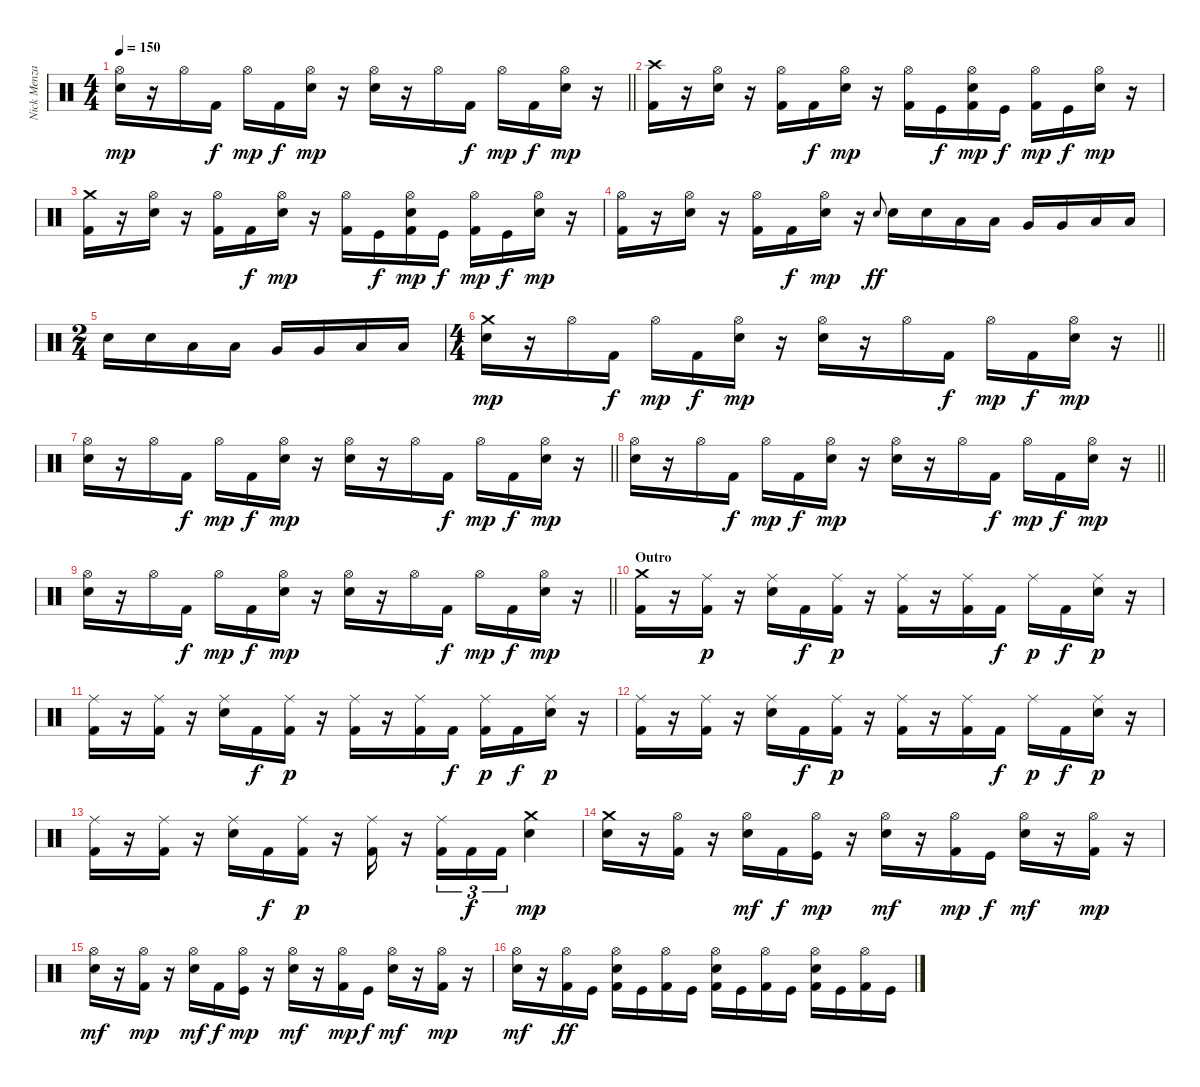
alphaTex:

\track ("Nick Menza" "Nick Menza") {solo instrument percussion}
\staff {score}
\articulation defaults
\ts (4 4)
\tempo 150
\clef neutral
\barLineRight lightlight
\ks c
("Hi-Hat (open)" "Electric Snare (hit)").16{dy mp} r.16 "Hi-Hat (open)".16 "Kick (hit) 2".16{dy f} "Hi-Hat (open)".16{dy mp} "Kick (hit) 2".16{dy f} ("Hi-Hat (open)" "Electric Snare (hit)").16{dy mp} r.16 ("Hi-Hat (open)" "Electric Snare (hit)").16 r.16 "Hi-Hat (open)".16 "Kick (hit) 2".16{dy f} "Hi-Hat (open)".16{dy mp} "Kick (hit) 2".16{dy f} ("Hi-Hat (open)" "Electric Snare (hit)").16{dy mp} r.16 |
\section ("" "")
("Crash high (hit)" "Kick (hit) 2").16 r.16 ("Hi-Hat (open)" "Electric Snare (hit)").16 r.16 ("Hi-Hat (open)" "Kick (hit) 2").16 "Kick (hit) 2".16{dy f} ("Hi-Hat (open)" "Electric Snare (hit)").16{dy mp} r.16 ("Hi-Hat (open)" "Kick (hit) 2").16 "Kick (hit)".16{dy f} ("Hi-Hat (open)" "Electric Snare (hit)" "Kick (hit) 2").16{dy mp} "Kick (hit)".16{dy f} ("Hi-Hat (open)" "Kick (hit) 2").16{dy mp} "Kick (hit)".16{dy f} ("Hi-Hat (open)" "Electric Snare (hit)").16{dy mp} r.16 |
("Crash medium (hit)" "Kick (hit) 2").16 r.16 ("Hi-Hat (open)" "Electric Snare (hit)").16 r.16 ("Hi-Hat (open)" "Kick (hit) 2").16 "Kick (hit) 2".16{dy f} ("Hi-Hat (open)" "Electric Snare (hit)").16{dy mp} r.16 ("Hi-Hat (open)" "Kick (hit) 2").16 "Kick (hit)".16{dy f} ("Hi-Hat (open)" "Electric Snare (hit)" "Kick (hit) 2").16{dy mp} "Kick (hit)".16{dy f} ("Hi-Hat (open)" "Kick (hit) 2").16{dy mp} "Kick (hit)".16{dy f} ("Hi-Hat (open)" "Electric Snare (hit)").16{dy mp} r.16 |
("Hi-Hat (open)" "Kick (hit) 2").16 r.16 ("Hi-Hat (open)" "Electric Snare (hit)").16 r.16 ("Hi-Hat (open)" "Kick (hit) 2").16 "Kick (hit) 2".16{dy f} ("Hi-Hat (open)" "Electric Snare (hit)").16{dy mp} r.16 "Electric Snare (hit)".8{gr onbeat dy ff} "Electric Snare (hit)".16 "Electric Snare (hit)".16 "Low Tom (hit)".16 "Low Tom (hit)".16 "Very Low Tom (hit)".16 "Very Low Tom (hit)".16 "Low Floor Tom (hit)".16 "Low Floor Tom (hit)".16 |
\ts (2 4)
"Electric Snare (hit)".16 "Electric Snare (hit)".16 "Low Tom (hit)".16 "Low Tom (hit)".16 "Very Low Tom (hit)".16 "Very Low Tom (hit)".16 "Low Floor Tom (hit)".16 "Low Floor Tom (hit)".16 |
\ts (4 4)
\barLineRight lightlight
("Crash medium (hit)" "Electric Snare (hit)").16{dy mp} r.16 "Hi-Hat (open)".16 "Kick (hit) 2".16{dy f} "Hi-Hat (open)".16{dy mp} "Kick (hit) 2".16{dy f} ("Hi-Hat (open)" "Electric Snare (hit)").16{dy mp} r.16 ("Hi-Hat (open)" "Electric Snare (hit)").16 r.16 "Hi-Hat (open)".16 "Kick (hit) 2".16{dy f} "Hi-Hat (open)".16{dy mp} "Kick (hit) 2".16{dy f} ("Hi-Hat (open)" "Electric Snare (hit)").16{dy mp} r.16 |
\barLineRight lightlight
("Hi-Hat (open)" "Electric Snare (hit)").16 r.16 "Hi-Hat (open)".16 "Kick (hit) 2".16{dy f} "Hi-Hat (open)".16{dy mp} "Kick (hit) 2".16{dy f} ("Hi-Hat (open)" "Electric Snare (hit)").16{dy mp} r.16 ("Hi-Hat (open)" "Electric Snare (hit)").16 r.16 "Hi-Hat (open)".16 "Kick (hit) 2".16{dy f} "Hi-Hat (open)".16{dy mp} "Kick (hit) 2".16{dy f} ("Hi-Hat (open)" "Electric Snare (hit)").16{dy mp} r.16 |
\barLineRight lightlight
("Hi-Hat (open)" "Electric Snare (hit)").16 r.16 "Hi-Hat (open)".16 "Kick (hit) 2".16{dy f} "Hi-Hat (open)".16{dy mp} "Kick (hit) 2".16{dy f} ("Hi-Hat (open)" "Electric Snare (hit)").16{dy mp} r.16 ("Hi-Hat (open)" "Electric Snare (hit)").16 r.16 "Hi-Hat (open)".16 "Kick (hit) 2".16{dy f} "Hi-Hat (open)".16{dy mp} "Kick (hit) 2".16{dy f} ("Hi-Hat (open)" "Electric Snare (hit)").16{dy mp} r.16 |
\barLineRight lightlight
("Hi-Hat (open)" "Electric Snare (hit)").16 r.16 "Hi-Hat (open)".16 "Kick (hit) 2".16{dy f} "Hi-Hat (open)".16{dy mp} "Kick (hit) 2".16{dy f} ("Hi-Hat (open)" "Electric Snare (hit)").16{dy mp} r.16 ("Hi-Hat (open)" "Electric Snare (hit)").16 r.16 "Hi-Hat (open)".16 "Kick (hit) 2".16{dy f} "Hi-Hat (open)".16{dy mp} "Kick (hit) 2".16{dy f} ("Hi-Hat (open)" "Electric Snare (hit)").16{dy mp} r.16 |
\section ("" "Outro")
("Crash medium (hit)" "Kick (hit) 2").16 r.16 ("Ride (middle)" "Kick (hit) 2").16{dy p} r.16 ("Ride (middle)" "Electric Snare (hit)").16 "Kick (hit) 2".16{dy f} ("Ride (middle)" "Kick (hit) 2").16{dy p} r.16 ("Ride (middle)" "Kick (hit) 2").16 r.16 ("Ride (middle)" "Kick (hit) 2").16 "Kick (hit) 2".16{dy f} "Ride (middle)".16{dy p} "Kick (hit) 2".16{dy f} ("Ride (middle)" "Electric Snare (hit)").16{dy p} r.16 |
("Ride (middle)" "Kick (hit) 2").16 r.16 ("Ride (middle)" "Kick (hit) 2").16 r.16 ("Ride (middle)" "Electric Snare (hit)").16 "Kick (hit) 2".16{dy f} ("Ride (middle)" "Kick (hit) 2").16{dy p} r.16 ("Ride (middle)" "Kick (hit) 2").16 r.16 ("Ride (middle)" "Kick (hit) 2").16 "Kick (hit) 2".16{dy f} ("Ride (middle)" "Kick (hit) 2").16{dy p} "Kick (hit) 2".16{dy f} ("Ride (middle)" "Electric Snare (hit)").16{dy p} r.16 |
("Ride (middle)" "Kick (hit) 2").16 r.16 ("Ride (middle)" "Kick (hit) 2").16 r.16 ("Ride (middle)" "Electric Snare (hit)").16 "Kick (hit) 2".16{dy f} ("Ride (middle)" "Kick (hit) 2").16{dy p} r.16 ("Ride (middle)" "Kick (hit) 2").16 r.16 ("Ride (middle)" "Kick (hit) 2").16 "Kick (hit) 2".16{dy f} "Ride (middle)".16{dy p} "Kick (hit) 2".16{dy f} ("Ride (middle)" "Electric Snare (hit)").16{dy p} r.16 |
("Ride (middle)" "Kick (hit) 2").16 r.16 ("Ride (middle)" "Kick (hit) 2").16 r.16 ("Ride (middle)" "Electric Snare (hit)").16 "Kick (hit) 2".16{dy f} ("Ride (middle)" "Kick (hit) 2").16{dy p} r.16 ("Ride (middle)" "Kick (hit) 2").16 r.16 ("Ride (middle)" "Kick (hit) 2").16{tu (3 2)} "Kick (hit) 2".16{tu (3 2) dy f} "Kick (hit) 2".16{tu (3 2)} ("Crash medium (hit)" "Electric Snare (hit)").4{dy mp} |
("Crash medium (hit)" "Electric Snare (hit)").16 r.16 ("Hi-Hat (open)" "Kick (hit) 2").16 r.16 ("Hi-Hat (open)" "Electric Snare (hit)").16{dy mf} "Kick (hit) 2".16{dy f} ("Hi-Hat (open)" "Kick (hit)").16{dy mp} r.16 ("Hi-Hat (open)" "Electric Snare (hit)").16{dy mf} r.16 ("Hi-Hat (open)" "Kick (hit) 2").16{dy mp} "Kick (hit)".16{dy f} ("Hi-Hat (open)" "Electric Snare (hit)").16{dy mf} r.16 ("Hi-Hat (open)" "Kick (hit) 2").16{dy mp} r.16 |
("Hi-Hat (open)" "Electric Snare (hit)").16{dy mf} r.16 ("Hi-Hat (open)" "Kick (hit) 2").16{dy mp} r.16 ("Hi-Hat (open)" "Electric Snare (hit)").16{dy mf} "Kick (hit) 2".16{dy f} ("Hi-Hat (open)" "Kick (hit)").16{dy mp} r.16 ("Hi-Hat (open)" "Electric Snare (hit)").16{dy mf} r.16 ("Hi-Hat (open)" "Kick (hit) 2").16{dy mp} "Kick (hit)".16{dy f} ("Hi-Hat (open)" "Electric Snare (hit)").16{dy mf} r.16 ("Hi-Hat (open)" "Kick (hit) 2").16{dy mp} r.16 |
("Hi-Hat (open)" "Electric Snare (hit)").16{dy mf} r.16 ("Hi-Hat (open)" "Kick (hit) 2").16{dy ff} "Kick (hit)".16 ("Hi-Hat (open)" "Electric Snare (hit)" "Kick (hit) 2").16 "Kick (hit)".16 ("Hi-Hat (open)" "Kick (hit) 2").16 "Kick (hit)".16 ("Hi-Hat (open)" "Electric Snare (hit)" "Kick (hit) 2").16 "Kick (hit)".16 ("Hi-Hat (open)" "Kick (hit) 2").16 "Kick (hit)".16 ("Hi-Hat (open)" "Electric Snare (hit)" "Kick (hit) 2").16 "Kick (hit)".16 ("Hi-Hat (open)" "Kick (hit) 2").16 "Kick (hit)".16
